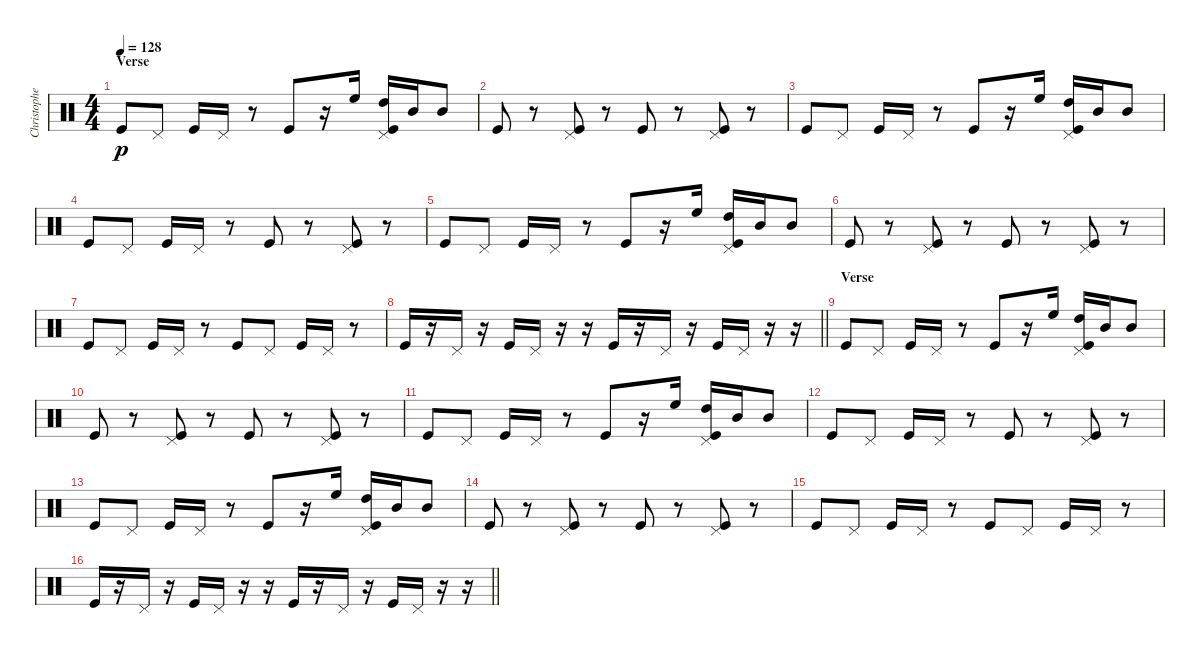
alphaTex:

\track ("Christopher - Drum Effects" "Christophe") {instrument percussion}
\staff {score}
\articulation defaults
\ts (4 4)
\section ("" "Verse")
\tempo 128
\clef neutral
\ks c "Kick (hit)".8{dy p} "Pedal Hi-Hat (hit)".8 "Kick (hit)".16 "Pedal Hi-Hat (hit)".16
r.8 "Kick (hit)".8 r.16 "High Floor Tom (hit)".16 ("Pedal Hi-Hat (hit)" "High Tom (hit)" "Kick (hit)").16 "Mid Tom (hit)".16 "Mid Tom (hit)".8 |
"Kick (hit)".8 r.8 ("Pedal Hi-Hat (hit)" "Kick (hit)").8 r.8 "Kick (hit)".8 r.8 ("Pedal Hi-Hat (hit)" "Kick (hit)").8 r.8 |
"Kick (hit)".8 "Pedal Hi-Hat (hit)".8 "Kick (hit)".16 "Pedal Hi-Hat (hit)".16 r.8 "Kick (hit)".8 r.16 "High Floor Tom (hit)".16 ("Pedal Hi-Hat (hit)" "High Tom (hit)" "Kick (hit)").16 "Mid Tom (hit)".16 "Mid Tom (hit)".8 |
"Kick (hit)".8 "Pedal Hi-Hat (hit)".8 "Kick (hit)".16 "Pedal Hi-Hat (hit)".16 r.8 "Kick (hit)".8 r.8 ("Pedal Hi-Hat (hit)" "Kick (hit)").8 r.8 |
"Kick (hit)".8 "Pedal Hi-Hat (hit)".8 "Kick (hit)".16 "Pedal Hi-Hat (hit)".16 r.8 "Kick (hit)".8 r.16 "High Floor Tom (hit)".16 ("Pedal Hi-Hat (hit)" "High Tom (hit)" "Kick (hit)").16 "Mid Tom (hit)".16 "Mid Tom (hit)".8 |
"Kick (hit)".8 r.8 ("Pedal Hi-Hat (hit)" "Kick (hit)").8 r.8 "Kick (hit)".8 r.8 ("Pedal Hi-Hat (hit)" "Kick (hit)").8 r.8 |
"Kick (hit)".8 "Pedal Hi-Hat (hit)".8 "Kick (hit)".16 "Pedal Hi-Hat (hit)".16 r.8 "Kick (hit)".8 "Pedal Hi-Hat (hit)".8 "Kick (hit)".16 "Pedal Hi-Hat (hit)".16 r.8 |
\barLineRight lightlight "Kick (hit)".16
r.16 "Pedal Hi-Hat (hit)".16 r.16 "Kick (hit)".16 "Pedal Hi-Hat (hit)".16 r.16 r.16 "Kick (hit)".16 r.16 "Pedal Hi-Hat (hit)".16 r.16 "Kick (hit)".16 "Pedal Hi-Hat (hit)".16 r.16 r.16 |
\section ("" "Verse")
"Kick (hit)".8 "Pedal Hi-Hat (hit)".8 "Kick (hit)".16 "Pedal Hi-Hat (hit)".16 r.8 "Kick (hit)".8 r.16 "High Floor Tom (hit)".16 ("Pedal Hi-Hat (hit)" "High Tom (hit)" "Kick (hit)").16 "Mid Tom (hit)".16 "Mid Tom (hit)".8 |
"Kick (hit)".8 r.8 ("Pedal Hi-Hat (hit)" "Kick (hit)").8 r.8 "Kick (hit)".8 r.8 ("Pedal Hi-Hat (hit)" "Kick (hit)").8 r.8 |
"Kick (hit)".8 "Pedal Hi-Hat (hit)".8 "Kick (hit)".16 "Pedal Hi-Hat (hit)".16 r.8 "Kick (hit)".8 r.16 "High Floor Tom (hit)".16 ("Pedal Hi-Hat (hit)" "High Tom (hit)" "Kick (hit)").16 "Mid Tom (hit)".16 "Mid Tom (hit)".8 |
"Kick (hit)".8 "Pedal Hi-Hat (hit)".8 "Kick (hit)".16 "Pedal Hi-Hat (hit)".16 r.8 "Kick (hit)".8 r.8 ("Pedal Hi-Hat (hit)" "Kick (hit)").8 r.8 |
"Kick (hit)".8 "Pedal Hi-Hat (hit)".8 "Kick (hit)".16 "Pedal Hi-Hat (hit)".16 r.8 "Kick (hit)".8 r.16 "High Floor Tom (hit)".16 ("Pedal Hi-Hat (hit)" "High Tom (hit)" "Kick (hit)").16 "Mid Tom (hit)".16 "Mid Tom (hit)".8 |
"Kick (hit)".8 r.8 ("Pedal Hi-Hat (hit)" "Kick (hit)").8 r.8 "Kick (hit)".8 r.8 ("Pedal Hi-Hat (hit)" "Kick (hit)").8 r.8 |
"Kick (hit)".8 "Pedal Hi-Hat (hit)".8 "Kick (hit)".16 "Pedal Hi-Hat (hit)".16 r.8 "Kick (hit)".8 "Pedal Hi-Hat (hit)".8 "Kick (hit)".16 "Pedal Hi-Hat (hit)".16 r.8 |
\barLineRight lightlight "Kick (hit)".16
r.16 "Pedal Hi-Hat (hit)".16 r.16 "Kick (hit)".16 "Pedal Hi-Hat (hit)".16 r.16 r.16 "Kick (hit)".16 r.16 "Pedal Hi-Hat (hit)".16 r.16 "Kick (hit)".16 "Pedal Hi-Hat (hit)".16 r.16 r.16
